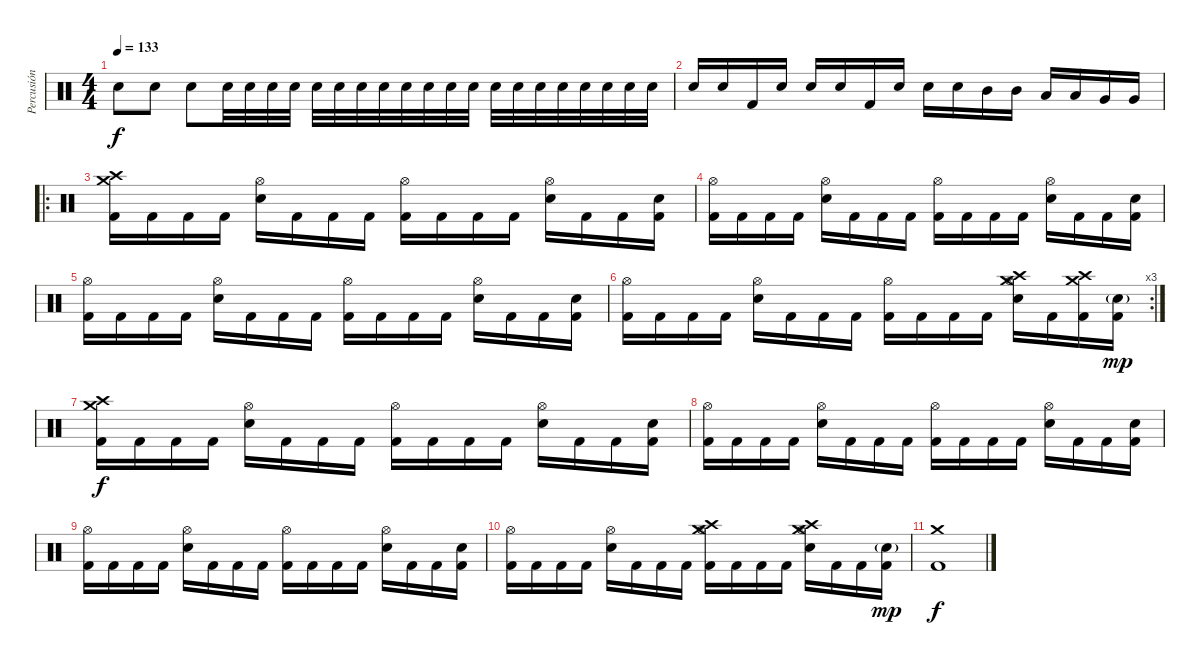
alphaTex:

\track ("Percusión" "Percusión") {instrument percussion}
\staff {score}
\articulation defaults
\ts (4 4)
\tempo 133
\clef neutral
\ks c "Snare (hit) 2".8{dy f} "Snare (hit) 2".8 "Snare (hit) 2".8 "Snare (hit) 2".32 "Snare (hit) 2".32 "Snare (hit) 2".32 "Snare (hit) 2".32 "Snare (hit) 2".32 "Snare (hit) 2".32 "Snare (hit) 2".32 "Snare (hit) 2".32 "Snare (hit) 2".32 "Snare (hit) 2".32 "Snare (hit) 2".32 "Snare (hit) 2".32 "Snare (hit) 2".32 "Snare (hit) 2".32 "Snare (hit) 2".32 "Snare (hit) 2".32 "Snare (hit) 2".32 "Snare (hit) 2".32 "Snare (hit) 2".32 "Snare (hit) 2".32{volume 14}
|
"Snare (hit) 2".16 "Snare (hit) 2".16 "Kick (hit) 2".16 "Snare (hit) 2".16 "Snare (hit) 2".16 "Snare (hit) 2".16 "Kick (hit) 2".16 "Snare (hit) 2".16 "Snare (hit) 2".16 "Snare (hit) 2".16 "Mid Tom (hit)".16 "Mid Tom (hit)".16 "Low Tom (hit)".16 "Low Tom (hit)".16 "Very Low Tom (hit)".16 "Very Low Tom (hit)".16 |
\ro
("Crash medium (hit)" "Kick (hit) 2" "Crash high (hit)").16 "Kick (hit) 2".16 "Kick (hit) 2".16 "Kick (hit) 2".16 ("Snare (hit) 2" "Hi-Hat (open)").16 "Kick (hit) 2".16 "Kick (hit) 2".16 "Kick (hit) 2".16 ("Kick (hit) 2" "Hi-Hat (open)").16 "Kick (hit) 2".16 "Kick (hit) 2".16 "Kick (hit) 2".16 ("Snare (hit) 2" "Hi-Hat (open)").16 "Kick (hit) 2".16 "Kick (hit) 2".16 ("Kick (hit) 2" "Snare (hit) 2").16 |
("Kick (hit) 2" "Hi-Hat (open)").16 "Kick (hit) 2".16 "Kick (hit) 2".16 "Kick (hit) 2".16 ("Snare (hit) 2" "Hi-Hat (open)").16 "Kick (hit) 2".16 "Kick (hit) 2".16 "Kick (hit) 2".16 ("Kick (hit) 2" "Hi-Hat (open)").16 "Kick (hit) 2".16 "Kick (hit) 2".16 "Kick (hit) 2".16 ("Snare (hit) 2" "Hi-Hat (open)").16 "Kick (hit) 2".16 "Kick (hit) 2".16 ("Kick (hit) 2" "Snare (hit) 2").16 |
("Kick (hit) 2" "Hi-Hat (open)").16 "Kick (hit) 2".16 "Kick (hit) 2".16 "Kick (hit) 2".16 ("Snare (hit) 2" "Hi-Hat (open)").16 "Kick (hit) 2".16 "Kick (hit) 2".16 "Kick (hit) 2".16 ("Kick (hit) 2" "Hi-Hat (open)").16 "Kick (hit) 2".16 "Kick (hit) 2".16 "Kick (hit) 2".16 ("Snare (hit) 2" "Hi-Hat (open)").16 "Kick (hit) 2".16 "Kick (hit) 2".16 ("Kick (hit) 2" "Snare (hit) 2").16 |
\rc 3
("Kick (hit) 2" "Hi-Hat (open)").16 "Kick (hit) 2".16 "Kick (hit) 2".16 "Kick (hit) 2".16 ("Snare (hit) 2" "Hi-Hat (open)").16 "Kick (hit) 2".16 "Kick (hit) 2".16 "Kick (hit) 2".16 ("Kick (hit) 2" "Hi-Hat (open)").16 "Kick (hit) 2".16 "Kick (hit) 2".16 "Kick (hit) 2".16 ("Snare (hit) 2" "Hi-Hat (open)" "Crash high (hit)" "Crash medium (hit)").16 "Kick (hit) 2".16 ("Kick (hit) 2" "Crash medium (hit)" "Crash high (hit)").16 ("Kick (hit) 2" "Snare (hit) 2"{g}).16{dy mp} |
("Crash medium (hit)" "Kick (hit) 2" "Crash high (hit)").16{dy f} "Kick (hit) 2".16 "Kick (hit) 2".16 "Kick (hit) 2".16 ("Snare (hit) 2" "Hi-Hat (open)").16 "Kick (hit) 2".16 "Kick (hit) 2".16 "Kick (hit) 2".16 ("Kick (hit) 2" "Hi-Hat (open)").16 "Kick (hit) 2".16 "Kick (hit) 2".16 "Kick (hit) 2".16 ("Snare (hit) 2" "Hi-Hat (open)").16 "Kick (hit) 2".16 "Kick (hit) 2".16 ("Kick (hit) 2" "Snare (hit) 2").16 |
("Kick (hit) 2" "Hi-Hat (open)").16 "Kick (hit) 2".16 "Kick (hit) 2".16 "Kick (hit) 2".16 ("Snare (hit) 2" "Hi-Hat (open)").16 "Kick (hit) 2".16 "Kick (hit) 2".16 "Kick (hit) 2".16 ("Kick (hit) 2" "Hi-Hat (open)").16 "Kick (hit) 2".16 "Kick (hit) 2".16 "Kick (hit) 2".16 ("Snare (hit) 2" "Hi-Hat (open)").16 "Kick (hit) 2".16 "Kick (hit) 2".16 ("Kick (hit) 2" "Snare (hit) 2").16 |
("Kick (hit) 2" "Hi-Hat (open)").16 "Kick (hit) 2".16 "Kick (hit) 2".16 "Kick (hit) 2".16 ("Snare (hit) 2" "Hi-Hat (open)").16 "Kick (hit) 2".16 "Kick (hit) 2".16 "Kick (hit) 2".16 ("Kick (hit) 2" "Hi-Hat (open)").16 "Kick (hit) 2".16 "Kick (hit) 2".16 "Kick (hit) 2".16 ("Snare (hit) 2" "Hi-Hat (open)").16 "Kick (hit) 2".16 "Kick (hit) 2".16 ("Kick (hit) 2" "Snare (hit) 2").16 |
("Kick (hit) 2" "Hi-Hat (open)").16 "Kick (hit) 2".16 "Kick (hit) 2".16 "Kick (hit) 2".16 ("Snare (hit) 2" "Hi-Hat (open)").16 "Kick (hit) 2".16 "Kick (hit) 2".16 "Kick (hit) 2".16 ("Kick (hit) 2" "Hi-Hat (open)" "Crash medium (hit)" "Crash high (hit)").16 "Kick (hit) 2".16 "Kick (hit) 2".16 "Kick (hit) 2".16 ("Snare (hit) 2" "Hi-Hat (open)" "Crash high (hit)" "Crash medium (hit)").16 "Kick (hit) 2".16 "Kick (hit) 2".16 ("Kick (hit) 2" "Snare (hit) 2"{g}).16{dy mp} |
("Kick (hit) 2" "Crash medium (hit)").1{dy f}
